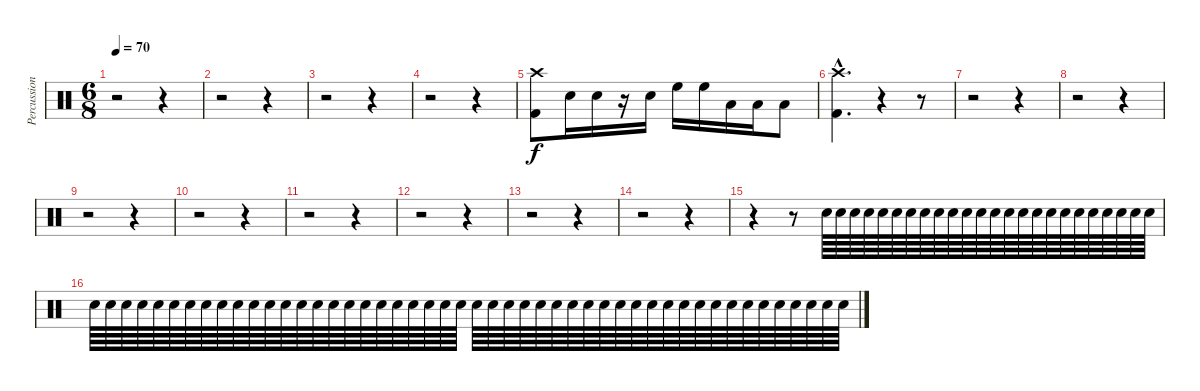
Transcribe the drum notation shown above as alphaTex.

\track ("Percussion" "Percussion") {instrument percussion}
\staff {score}
\articulation defaults
\ts (6 8)
\tempo 70
\clef neutral
\ks c
r.2{dy f} r.4 |
r.2 r.4 |
r.2 r.4 |
r.2 r.4 |
("Crash high (hit)" "Kick (hit) 2").8 "Snare (hit) 2".16 "Snare (hit) 2".16 r.16 "Snare (hit) 2".16 "High Floor Tom (hit)".16 "High Floor Tom (hit)".16 "Low Tom (hit)".16 "Low Tom (hit)".16 "Low Tom (hit)".8 |
("Crash high (hit)"{hac} "Kick (hit) 2"{hac}).4{d} r.4 r.8 |
r.2 r.4 |
r.2 r.4 |
r.2 r.4 |
r.2 r.4 |
r.2 r.4 |
r.2 r.4 |
r.2 r.4 |
r.2 r.4 |
r.4 r.8 "Snare (hit) 2".64 "Snare (hit) 2".64 "Snare (hit) 2".64 "Snare (hit) 2".64 "Snare (hit) 2".64 "Snare (hit) 2".64 "Snare (hit) 2".64 "Snare (hit) 2".64 "Snare (hit) 2".64 "Snare (hit) 2".64 "Snare (hit) 2".64 "Snare (hit) 2".64 "Snare (hit) 2".64 "Snare (hit) 2".64 "Snare (hit) 2".64 "Snare (hit) 2".64 "Snare (hit) 2".64 "Snare (hit) 2".64 "Snare (hit) 2".64 "Snare (hit) 2".64 "Snare (hit) 2".64 "Snare (hit) 2".64 "Snare (hit) 2".64 "Snare (hit) 2".64 |
"Snare (hit) 2".64 "Snare (hit) 2".64 "Snare (hit) 2".64 "Snare (hit) 2".64 "Snare (hit) 2".64 "Snare (hit) 2".64 "Snare (hit) 2".64 "Snare (hit) 2".64 "Snare (hit) 2".64 "Snare (hit) 2".64 "Snare (hit) 2".64 "Snare (hit) 2".64 "Snare (hit) 2".64 "Snare (hit) 2".64 "Snare (hit) 2".64 "Snare (hit) 2".64 "Snare (hit) 2".64 "Snare (hit) 2".64 "Snare (hit) 2".64 "Snare (hit) 2".64 "Snare (hit) 2".64 "Snare (hit) 2".64 "Snare (hit) 2".64 "Snare (hit) 2".64 "Snare (hit) 2".64 "Snare (hit) 2".64 "Snare (hit) 2".64 "Snare (hit) 2".64 "Snare (hit) 2".64 "Snare (hit) 2".64 "Snare (hit) 2".64 "Snare (hit) 2".64 "Snare (hit) 2".64 "Snare (hit) 2".64 "Snare (hit) 2".64 "Snare (hit) 2".64 "Snare (hit) 2".64 "Snare (hit) 2".64 "Snare (hit) 2".64 "Snare (hit) 2".64 "Snare (hit) 2".64 "Snare (hit) 2".64 "Snare (hit) 2".64 "Snare (hit) 2".64 "Snare (hit) 2".64 "Snare (hit) 2".64 "Snare (hit) 2".64 "Snare (hit) 2".64
